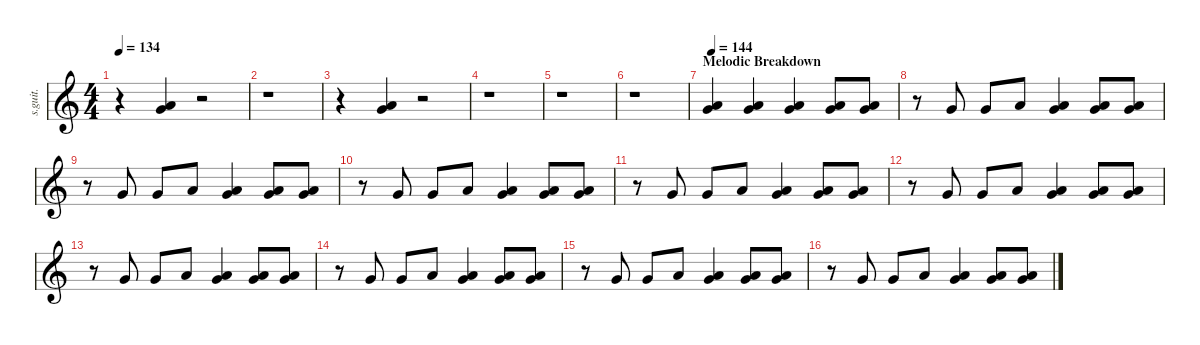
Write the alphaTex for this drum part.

\defaultSystemsLayout 4
\hideDynamics
\bracketExtendMode nobrackets
\track ("Shawn Crahan" "s.guit.") {instrument percussion}
\staff {score}
\articulation defaults
\ts (4 4)
\tempo 134
\clef g2
\ks c
r.4{dy f} ("Very Low Tom (hit)" "Low Floor Tom (hit)").4 r.2 |
r.1 |
r.4 ("Very Low Tom (hit)" "Low Floor Tom (hit)").4 r.2 |
r.1 |
r.1 |
r.1 |
\section ("" "Melodic Breakdown")
\tempo 144
("Low Floor Tom (hit)" "Very Low Tom (hit)").4 ("Low Floor Tom (hit)" "Very Low Tom (hit)").4 ("Very Low Tom (hit)" "Low Floor Tom (hit)").4 ("Very Low Tom (hit)" "Low Floor Tom (hit)").8 ("Very Low Tom (hit)" "Low Floor Tom (hit)").8 |
r.8 "Very Low Tom (hit)".8 "Very Low Tom (hit)".8 "Low Floor Tom (hit)".8 ("Very Low Tom (hit)" "Low Floor Tom (hit)").4 ("Very Low Tom (hit)" "Low Floor Tom (hit)").8 ("Very Low Tom (hit)" "Low Floor Tom (hit)").8 |
r.8 "Very Low Tom (hit)".8 "Very Low Tom (hit)".8 "Low Floor Tom (hit)".8 ("Very Low Tom (hit)" "Low Floor Tom (hit)").4 ("Very Low Tom (hit)" "Low Floor Tom (hit)").8 ("Very Low Tom (hit)" "Low Floor Tom (hit)").8 |
r.8 "Very Low Tom (hit)".8 "Very Low Tom (hit)".8 "Low Floor Tom (hit)".8 ("Very Low Tom (hit)" "Low Floor Tom (hit)").4 ("Very Low Tom (hit)" "Low Floor Tom (hit)").8 ("Very Low Tom (hit)" "Low Floor Tom (hit)").8 |
r.8 "Very Low Tom (hit)".8 "Very Low Tom (hit)".8 "Low Floor Tom (hit)".8 ("Very Low Tom (hit)" "Low Floor Tom (hit)").4 ("Very Low Tom (hit)" "Low Floor Tom (hit)").8 ("Very Low Tom (hit)" "Low Floor Tom (hit)").8 |
r.8 "Very Low Tom (hit)".8 "Very Low Tom (hit)".8 "Low Floor Tom (hit)".8 ("Very Low Tom (hit)" "Low Floor Tom (hit)").4 ("Very Low Tom (hit)" "Low Floor Tom (hit)").8 ("Very Low Tom (hit)" "Low Floor Tom (hit)").8 |
r.8 "Very Low Tom (hit)".8 "Very Low Tom (hit)".8 "Low Floor Tom (hit)".8 ("Very Low Tom (hit)" "Low Floor Tom (hit)").4 ("Very Low Tom (hit)" "Low Floor Tom (hit)").8 ("Very Low Tom (hit)" "Low Floor Tom (hit)").8 |
r.8 "Very Low Tom (hit)".8 "Very Low Tom (hit)".8 "Low Floor Tom (hit)".8 ("Very Low Tom (hit)" "Low Floor Tom (hit)").4 ("Very Low Tom (hit)" "Low Floor Tom (hit)").8 ("Very Low Tom (hit)" "Low Floor Tom (hit)").8 |
r.8 "Very Low Tom (hit)".8 "Very Low Tom (hit)".8 "Low Floor Tom (hit)".8 ("Very Low Tom (hit)" "Low Floor Tom (hit)").4 ("Very Low Tom (hit)" "Low Floor Tom (hit)").8 ("Very Low Tom (hit)" "Low Floor Tom (hit)").8 |
r.8 "Very Low Tom (hit)".8 "Very Low Tom (hit)".8 "Low Floor Tom (hit)".8 ("Very Low Tom (hit)" "Low Floor Tom (hit)").4 ("Very Low Tom (hit)" "Low Floor Tom (hit)").8 ("Very Low Tom (hit)" "Low Floor Tom (hit)").8
